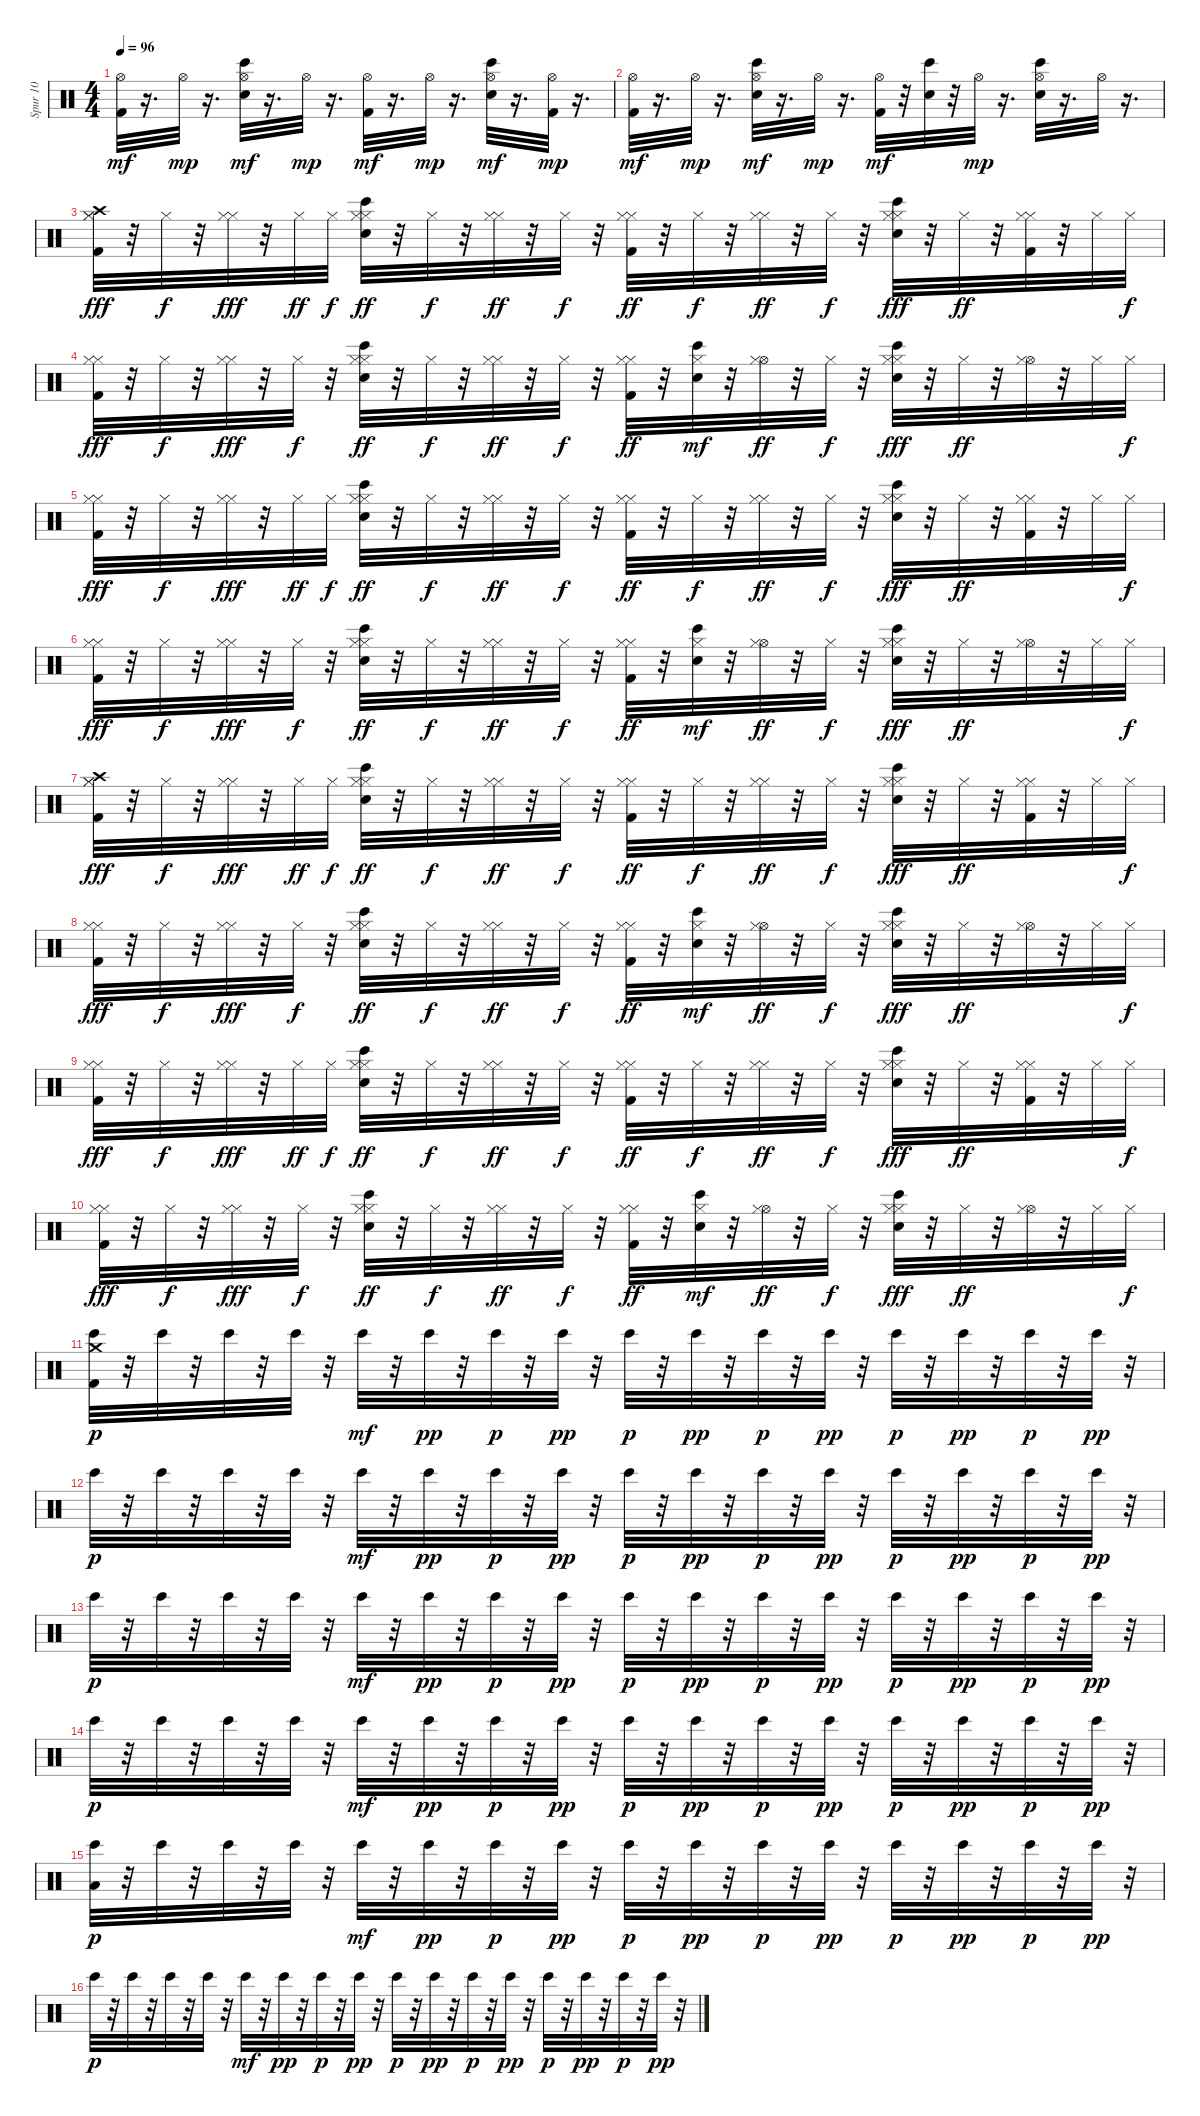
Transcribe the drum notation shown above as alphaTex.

\track ("Spur 10" "Spur 10") {instrument percussion}
\staff {score}
\articulation defaults
\ts (4 4)
\tempo 96
\clef neutral
\ks c
("Hi-Hat (open)" "Kick (hit) 2").32{dy mf} r.16{d} "Hi-Hat (open)".32{dy mp} r.16{d} ("Hi-Hat (open)" "Snare (hit) 2" "Bongo High (hit)").32{dy mf} r.16{d} "Hi-Hat (open)".32{dy mp} r.16{d} ("Hi-Hat (open)" "Kick (hit) 2").32{dy mf} r.16{d} "Hi-Hat (open)".32{dy mp} r.16{d} ("Hi-Hat (open)" "Snare (hit) 2" "Bongo High (hit)").32{dy mf} r.16{d} ("Hi-Hat (open)" "Kick (hit) 2").32{dy mp} r.16{d} |
("Hi-Hat (open)" "Kick (hit) 2").32{dy mf} r.16{d} "Hi-Hat (open)".32{dy mp} r.16{d} ("Hi-Hat (open)" "Snare (hit) 2" "Bongo High (hit)").32{dy mf} r.16{d} "Hi-Hat (open)".32{dy mp} r.16{d} ("Hi-Hat (open)" "Kick (hit) 2").32{dy mf} r.32 ("Snare (hit) 2" "Bongo High (hit)").32 r.32 "Hi-Hat (open)".32{dy mp} r.16{d} ("Hi-Hat (open)" "Snare (hit) 2" "Bongo High (hit)").32 r.16{d} "Hi-Hat (open)".32 r.16{d} |
("Crash high (hit)" "Hi-Hat (closed)" "Kick (hit) 2" "Hi-Hat (closed)").32{dy fff} r.32 "Hi-Hat (closed)".32{dy f} r.32 ("Hi-Hat (closed)" "Hi-Hat (closed)").32{dy fff} r.32 "Hi-Hat (closed)".32{dy ff} "Hi-Hat (closed)".32{dy f} ("Hi-Hat (closed)" "Snare (hit) 2" "Bongo High (hit)" "Hi-Hat (closed)").32{dy ff} r.32 "Hi-Hat (closed)".32{dy f} r.32 ("Hi-Hat (closed)" "Hi-Hat (closed)").32{dy ff} r.32 "Hi-Hat (closed)".32{dy f} r.32 ("Hi-Hat (closed)" "Kick (hit) 2" "Hi-Hat (closed)").32{dy ff} r.32 "Hi-Hat (closed)".32{dy f} r.32 ("Hi-Hat (closed)" "Hi-Hat (closed)").32{dy ff} r.32 "Hi-Hat (closed)".32{dy f} r.32 ("Hi-Hat (closed)" "Snare (hit) 2" "Bongo High (hit)" "Hi-Hat (closed)").32{dy fff} r.32 "Hi-Hat (closed)".32{dy ff} r.32 ("Hi-Hat (closed)" "Kick (hit) 2" "Hi-Hat (closed)").32 r.32 "Hi-Hat (closed)".32 "Hi-Hat (closed)".32{dy f} |
("Hi-Hat (closed)" "Kick (hit) 2" "Hi-Hat (closed)").32{dy fff} r.32 "Hi-Hat (closed)".32{dy f} r.32 ("Hi-Hat (closed)" "Hi-Hat (closed)").32{dy fff} r.32 "Hi-Hat (closed)".32{dy f} r.32 ("Hi-Hat (closed)" "Snare (hit) 2" "Bongo High (hit)" "Hi-Hat (closed)").32{dy ff} r.32 "Hi-Hat (closed)".32{dy f} r.32 ("Hi-Hat (closed)" "Hi-Hat (closed)").32{dy ff} r.32 "Hi-Hat (closed)".32{dy f} r.32 ("Hi-Hat (closed)" "Kick (hit) 2" "Hi-Hat (closed)").32{dy ff} r.32 ("Snare (hit) 2" "Bongo High (hit)" "Hi-Hat (closed)").32{dy mf} r.32 ("Hi-Hat (open)" "Hi-Hat (closed)").32{dy ff} r.32 "Hi-Hat (closed)".32{dy f} r.32 ("Hi-Hat (closed)" "Snare (hit) 2" "Bongo High (hit)" "Hi-Hat (closed)").32{dy fff} r.32 "Hi-Hat (closed)".32{dy ff} r.32 ("Hi-Hat (open)" "Hi-Hat (closed)").32 r.32 "Hi-Hat (closed)".32 "Hi-Hat (closed)".32{dy f} |
("Hi-Hat (closed)" "Kick (hit) 2" "Hi-Hat (closed)").32{dy fff} r.32 "Hi-Hat (closed)".32{dy f} r.32 ("Hi-Hat (closed)" "Hi-Hat (closed)").32{dy fff} r.32 "Hi-Hat (closed)".32{dy ff} "Hi-Hat (closed)".32{dy f} ("Hi-Hat (closed)" "Snare (hit) 2" "Bongo High (hit)" "Hi-Hat (closed)").32{dy ff} r.32 "Hi-Hat (closed)".32{dy f} r.32 ("Hi-Hat (closed)" "Hi-Hat (closed)").32{dy ff} r.32 "Hi-Hat (closed)".32{dy f} r.32 ("Hi-Hat (closed)" "Kick (hit) 2" "Hi-Hat (closed)").32{dy ff} r.32 "Hi-Hat (closed)".32{dy f} r.32 ("Hi-Hat (closed)" "Hi-Hat (closed)").32{dy ff} r.32 "Hi-Hat (closed)".32{dy f} r.32 ("Hi-Hat (closed)" "Snare (hit) 2" "Bongo High (hit)" "Hi-Hat (closed)").32{dy fff} r.32 "Hi-Hat (closed)".32{dy ff} r.32 ("Hi-Hat (closed)" "Kick (hit) 2" "Hi-Hat (closed)").32 r.32 "Hi-Hat (closed)".32 "Hi-Hat (closed)".32{dy f} |
("Hi-Hat (closed)" "Kick (hit) 2" "Hi-Hat (closed)").32{dy fff} r.32 "Hi-Hat (closed)".32{dy f} r.32 ("Hi-Hat (closed)" "Hi-Hat (closed)").32{dy fff} r.32 "Hi-Hat (closed)".32{dy f} r.32 ("Hi-Hat (closed)" "Snare (hit) 2" "Bongo High (hit)" "Hi-Hat (closed)").32{dy ff} r.32 "Hi-Hat (closed)".32{dy f} r.32 ("Hi-Hat (closed)" "Hi-Hat (closed)").32{dy ff} r.32 "Hi-Hat (closed)".32{dy f} r.32 ("Hi-Hat (closed)" "Kick (hit) 2" "Hi-Hat (closed)").32{dy ff} r.32 ("Snare (hit) 2" "Bongo High (hit)" "Hi-Hat (closed)").32{dy mf} r.32 ("Hi-Hat (open)" "Hi-Hat (closed)").32{dy ff} r.32 "Hi-Hat (closed)".32{dy f} r.32 ("Hi-Hat (closed)" "Snare (hit) 2" "Bongo High (hit)" "Hi-Hat (closed)").32{dy fff} r.32 "Hi-Hat (closed)".32{dy ff} r.32 ("Hi-Hat (open)" "Hi-Hat (closed)").32 r.32 "Hi-Hat (closed)".32 "Hi-Hat (closed)".32{dy f} |
("Crash high (hit)" "Hi-Hat (closed)" "Kick (hit) 2" "Hi-Hat (closed)").32{dy fff} r.32 "Hi-Hat (closed)".32{dy f} r.32 ("Hi-Hat (closed)" "Hi-Hat (closed)").32{dy fff} r.32 "Hi-Hat (closed)".32{dy ff} "Hi-Hat (closed)".32{dy f} ("Hi-Hat (closed)" "Snare (hit) 2" "Bongo High (hit)" "Hi-Hat (closed)").32{dy ff} r.32 "Hi-Hat (closed)".32{dy f} r.32 ("Hi-Hat (closed)" "Hi-Hat (closed)").32{dy ff} r.32 "Hi-Hat (closed)".32{dy f} r.32 ("Hi-Hat (closed)" "Kick (hit) 2" "Hi-Hat (closed)").32{dy ff} r.32 "Hi-Hat (closed)".32{dy f} r.32 ("Hi-Hat (closed)" "Hi-Hat (closed)").32{dy ff} r.32 "Hi-Hat (closed)".32{dy f} r.32 ("Hi-Hat (closed)" "Snare (hit) 2" "Bongo High (hit)" "Hi-Hat (closed)").32{dy fff} r.32 "Hi-Hat (closed)".32{dy ff} r.32 ("Hi-Hat (closed)" "Kick (hit) 2" "Hi-Hat (closed)").32 r.32 "Hi-Hat (closed)".32 "Hi-Hat (closed)".32{dy f} |
("Hi-Hat (closed)" "Kick (hit) 2" "Hi-Hat (closed)").32{dy fff} r.32 "Hi-Hat (closed)".32{dy f} r.32 ("Hi-Hat (closed)" "Hi-Hat (closed)").32{dy fff} r.32 "Hi-Hat (closed)".32{dy f} r.32 ("Hi-Hat (closed)" "Snare (hit) 2" "Bongo High (hit)" "Hi-Hat (closed)").32{dy ff} r.32 "Hi-Hat (closed)".32{dy f} r.32 ("Hi-Hat (closed)" "Hi-Hat (closed)").32{dy ff} r.32 "Hi-Hat (closed)".32{dy f} r.32 ("Hi-Hat (closed)" "Kick (hit) 2" "Hi-Hat (closed)").32{dy ff} r.32 ("Snare (hit) 2" "Bongo High (hit)" "Hi-Hat (closed)").32{dy mf} r.32 ("Hi-Hat (open)" "Hi-Hat (closed)").32{dy ff} r.32 "Hi-Hat (closed)".32{dy f} r.32 ("Hi-Hat (closed)" "Snare (hit) 2" "Bongo High (hit)" "Hi-Hat (closed)").32{dy fff} r.32 "Hi-Hat (closed)".32{dy ff} r.32 ("Hi-Hat (open)" "Hi-Hat (closed)").32 r.32 "Hi-Hat (closed)".32 "Hi-Hat (closed)".32{dy f} |
("Hi-Hat (closed)" "Kick (hit) 2" "Hi-Hat (closed)").32{dy fff} r.32 "Hi-Hat (closed)".32{dy f} r.32 ("Hi-Hat (closed)" "Hi-Hat (closed)").32{dy fff} r.32 "Hi-Hat (closed)".32{dy ff} "Hi-Hat (closed)".32{dy f} ("Hi-Hat (closed)" "Snare (hit) 2" "Bongo High (hit)" "Hi-Hat (closed)").32{dy ff} r.32 "Hi-Hat (closed)".32{dy f} r.32 ("Hi-Hat (closed)" "Hi-Hat (closed)").32{dy ff} r.32 "Hi-Hat (closed)".32{dy f} r.32 ("Hi-Hat (closed)" "Kick (hit) 2" "Hi-Hat (closed)").32{dy ff} r.32 "Hi-Hat (closed)".32{dy f} r.32 ("Hi-Hat (closed)" "Hi-Hat (closed)").32{dy ff} r.32 "Hi-Hat (closed)".32{dy f} r.32 ("Hi-Hat (closed)" "Snare (hit) 2" "Bongo High (hit)" "Hi-Hat (closed)").32{dy fff} r.32 "Hi-Hat (closed)".32{dy ff} r.32 ("Hi-Hat (closed)" "Kick (hit) 2" "Hi-Hat (closed)").32 r.32 "Hi-Hat (closed)".32 "Hi-Hat (closed)".32{dy f} |
("Hi-Hat (closed)" "Kick (hit) 2" "Hi-Hat (closed)").32{dy fff} r.32 "Hi-Hat (closed)".32{dy f} r.32 ("Hi-Hat (closed)" "Hi-Hat (closed)").32{dy fff} r.32 "Hi-Hat (closed)".32{dy f} r.32 ("Hi-Hat (closed)" "Snare (hit) 2" "Bongo High (hit)" "Hi-Hat (closed)").32{dy ff} r.32 "Hi-Hat (closed)".32{dy f} r.32 ("Hi-Hat (closed)" "Hi-Hat (closed)").32{dy ff} r.32 "Hi-Hat (closed)".32{dy f} r.32 ("Hi-Hat (closed)" "Kick (hit) 2" "Hi-Hat (closed)").32{dy ff} r.32 ("Snare (hit) 2" "Bongo High (hit)" "Hi-Hat (closed)").32{dy mf} r.32 ("Hi-Hat (open)" "Hi-Hat (closed)").32{dy ff} r.32 "Hi-Hat (closed)".32{dy f} r.32 ("Hi-Hat (closed)" "Snare (hit) 2" "Bongo High (hit)" "Hi-Hat (closed)").32{dy fff} r.32 "Hi-Hat (closed)".32{dy ff} r.32 ("Hi-Hat (open)" "Hi-Hat (closed)").32 r.32 "Hi-Hat (closed)".32 "Hi-Hat (closed)".32{dy f} |
("Crash medium (hit)" "Kick (hit) 2" "Bongo High (hit)").32{dy p} r.32 "Bongo High (hit)".32 r.32 "Bongo High (hit)".32 r.32 "Bongo High (hit)".32 r.32 "Bongo High (hit)".32{dy mf} r.32 "Bongo High (hit)".32{dy pp} r.32 "Bongo High (hit)".32{dy p} r.32 "Bongo High (hit)".32{dy pp} r.32 "Bongo High (hit)".32{dy p} r.32 "Bongo High (hit)".32{dy pp} r.32 "Bongo High (hit)".32{dy p} r.32 "Bongo High (hit)".32{dy pp} r.32 "Bongo High (hit)".32{dy p} r.32 "Bongo High (hit)".32{dy pp} r.32 "Bongo High (hit)".32{dy p} r.32 "Bongo High (hit)".32{dy pp} r.32 |
"Bongo High (hit)".32{dy p} r.32 "Bongo High (hit)".32 r.32 "Bongo High (hit)".32 r.32 "Bongo High (hit)".32 r.32 "Bongo High (hit)".32{dy mf} r.32 "Bongo High (hit)".32{dy pp} r.32 "Bongo High (hit)".32{dy p} r.32 "Bongo High (hit)".32{dy pp} r.32 "Bongo High (hit)".32{dy p} r.32 "Bongo High (hit)".32{dy pp} r.32 "Bongo High (hit)".32{dy p} r.32 "Bongo High (hit)".32{dy pp} r.32 "Bongo High (hit)".32{dy p} r.32 "Bongo High (hit)".32{dy pp} r.32 "Bongo High (hit)".32{dy p} r.32 "Bongo High (hit)".32{dy pp} r.32 |
"Bongo High (hit)".32{dy p} r.32 "Bongo High (hit)".32 r.32 "Bongo High (hit)".32 r.32 "Bongo High (hit)".32 r.32 "Bongo High (hit)".32{dy mf} r.32 "Bongo High (hit)".32{dy pp} r.32 "Bongo High (hit)".32{dy p} r.32 "Bongo High (hit)".32{dy pp} r.32 "Bongo High (hit)".32{dy p} r.32 "Bongo High (hit)".32{dy pp} r.32 "Bongo High (hit)".32{dy p} r.32 "Bongo High (hit)".32{dy pp} r.32 "Bongo High (hit)".32{dy p} r.32 "Bongo High (hit)".32{dy pp} r.32 "Bongo High (hit)".32{dy p} r.32 "Bongo High (hit)".32{dy pp} r.32 |
"Bongo High (hit)".32{dy p} r.32 "Bongo High (hit)".32 r.32 "Bongo High (hit)".32 r.32 "Bongo High (hit)".32 r.32 "Bongo High (hit)".32{dy mf} r.32 "Bongo High (hit)".32{dy pp} r.32 "Bongo High (hit)".32{dy p} r.32 "Bongo High (hit)".32{dy pp} r.32 "Bongo High (hit)".32{dy p} r.32 "Bongo High (hit)".32{dy pp} r.32 "Bongo High (hit)".32{dy p} r.32 "Bongo High (hit)".32{dy pp} r.32 "Bongo High (hit)".32{dy p} r.32 "Bongo High (hit)".32{dy pp} r.32 "Bongo High (hit)".32{dy p} r.32 "Bongo High (hit)".32{dy pp} r.32 |
("Low Floor Tom (hit)" "Bongo High (hit)").32{dy p} r.32 "Bongo High (hit)".32 r.32 "Bongo High (hit)".32 r.32 "Bongo High (hit)".32 r.32 "Bongo High (hit)".32{dy mf} r.32 "Bongo High (hit)".32{dy pp} r.32 "Bongo High (hit)".32{dy p} r.32 "Bongo High (hit)".32{dy pp} r.32 "Bongo High (hit)".32{dy p} r.32 "Bongo High (hit)".32{dy pp} r.32 "Bongo High (hit)".32{dy p} r.32 "Bongo High (hit)".32{dy pp} r.32 "Bongo High (hit)".32{dy p} r.32 "Bongo High (hit)".32{dy pp} r.32 "Bongo High (hit)".32{dy p} r.32 "Bongo High (hit)".32{dy pp} r.32 |
"Bongo High (hit)".32{dy p} r.32 "Bongo High (hit)".32 r.32 "Bongo High (hit)".32 r.32 "Bongo High (hit)".32 r.32 "Bongo High (hit)".32{dy mf} r.32 "Bongo High (hit)".32{dy pp} r.32 "Bongo High (hit)".32{dy p} r.32 "Bongo High (hit)".32{dy pp} r.32 "Bongo High (hit)".32{dy p} r.32 "Bongo High (hit)".32{dy pp} r.32 "Bongo High (hit)".32{dy p} r.32 "Bongo High (hit)".32{dy pp} r.32 "Bongo High (hit)".32{dy p} r.32 "Bongo High (hit)".32{dy pp} r.32 "Bongo High (hit)".32{dy p} r.32 "Bongo High (hit)".32{dy pp} r.32
